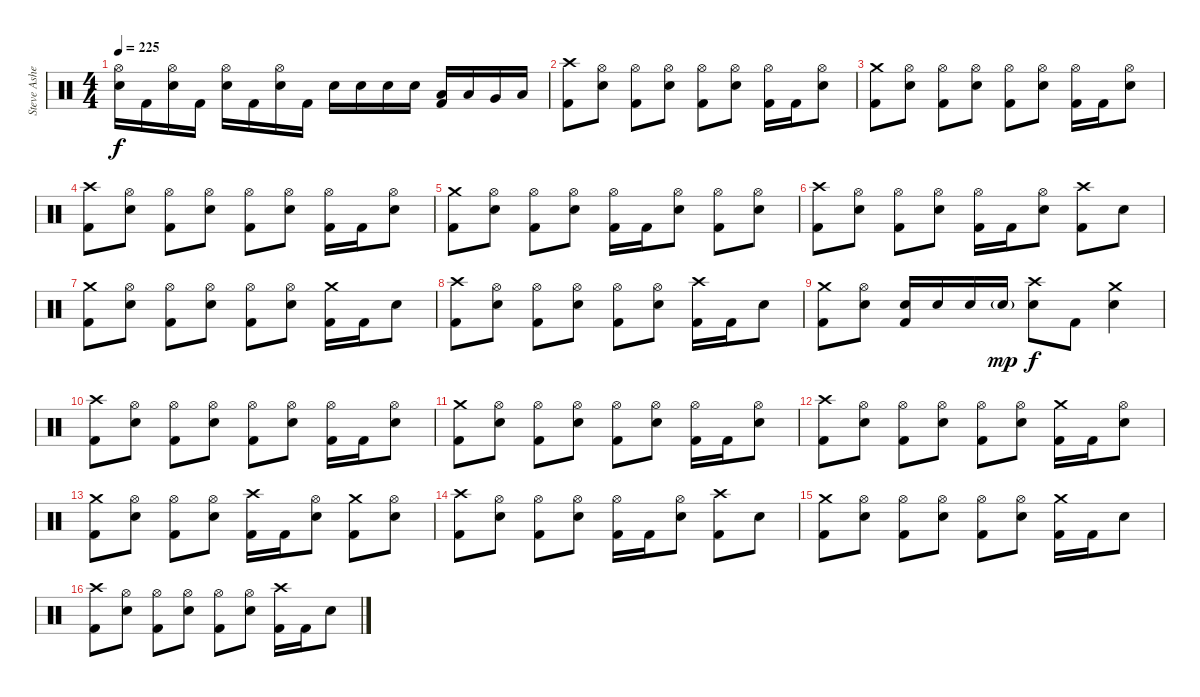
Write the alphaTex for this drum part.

\track ("Steve Asheim" "Steve Ashe") {instrument percussion}
\staff {score}
\articulation defaults
\ts (4 4)
\tempo 225
\clef neutral
\ks c
("Hi-Hat (open)" "Electric Snare (hit)").16{dy f} "Kick (hit) 2".16 ("Hi-Hat (open)" "Electric Snare (hit)").16 "Kick (hit) 2".16 ("Hi-Hat (open)" "Electric Snare (hit)").16 "Kick (hit) 2".16 ("Hi-Hat (open)" "Electric Snare (hit)").16 "Kick (hit) 2".16 "Electric Snare (hit)".16 "Electric Snare (hit)".16 "Electric Snare (hit)".16 "Electric Snare (hit)".16 ("Low Tom (hit)" "Kick (hit) 2").16 "Low Tom (hit)".16 "Very Low Tom (hit)".16 "Low Floor Tom (hit)".16 |
("Crash high (hit)" "Kick (hit) 2").8 ("Hi-Hat (open)" "Electric Snare (hit)").8 ("Hi-Hat (open)" "Kick (hit) 2").8 ("Hi-Hat (open)" "Electric Snare (hit)").8 ("Hi-Hat (open)" "Kick (hit) 2").8 ("Hi-Hat (open)" "Electric Snare (hit)").8 ("Hi-Hat (open)" "Kick (hit) 2").16 "Kick (hit) 2".16 ("Hi-Hat (open)" "Electric Snare (hit)").8 |
("Crash medium (hit)" "Kick (hit) 2").8 ("Hi-Hat (open)" "Electric Snare (hit)").8 ("Hi-Hat (open)" "Kick (hit) 2").8 ("Hi-Hat (open)" "Electric Snare (hit)").8 ("Hi-Hat (open)" "Kick (hit) 2").8 ("Hi-Hat (open)" "Electric Snare (hit)").8 ("Hi-Hat (open)" "Kick (hit) 2").16 "Kick (hit) 2".16 ("Hi-Hat (open)" "Electric Snare (hit)").8 |
("Crash high (hit)" "Kick (hit) 2").8 ("Hi-Hat (open)" "Electric Snare (hit)").8 ("Hi-Hat (open)" "Kick (hit) 2").8 ("Hi-Hat (open)" "Electric Snare (hit)").8 ("Hi-Hat (open)" "Kick (hit) 2").8 ("Hi-Hat (open)" "Electric Snare (hit)").8 ("Hi-Hat (open)" "Kick (hit) 2").16 "Kick (hit) 2".16 ("Hi-Hat (open)" "Electric Snare (hit)").8 |
("Crash medium (hit)" "Kick (hit) 2").8 ("Hi-Hat (open)" "Electric Snare (hit)").8 ("Hi-Hat (open)" "Kick (hit) 2").8 ("Hi-Hat (open)" "Electric Snare (hit)").8 ("Hi-Hat (open)" "Kick (hit) 2").16 "Kick (hit) 2".16 ("Hi-Hat (open)" "Electric Snare (hit)").8 ("Hi-Hat (open)" "Kick (hit) 2").8 ("Hi-Hat (open)" "Electric Snare (hit)").8 |
("Crash high (hit)" "Kick (hit) 2").8 ("Hi-Hat (open)" "Electric Snare (hit)").8 ("Hi-Hat (open)" "Kick (hit) 2").8 ("Hi-Hat (open)" "Electric Snare (hit)").8 ("Hi-Hat (open)" "Kick (hit) 2").16 "Kick (hit) 2".16 ("Hi-Hat (open)" "Electric Snare (hit)").8 ("Crash high (hit)" "Kick (hit) 2").8 "Electric Snare (hit)".8 |
("Crash medium (hit)" "Kick (hit) 2").8 ("Hi-Hat (open)" "Electric Snare (hit)").8 ("Hi-Hat (open)" "Kick (hit) 2").8 ("Hi-Hat (open)" "Electric Snare (hit)").8 ("Hi-Hat (open)" "Kick (hit) 2").8 ("Hi-Hat (open)" "Electric Snare (hit)").8 ("Crash medium (hit)" "Kick (hit) 2").16 "Kick (hit) 2".16 "Electric Snare (hit)".8 |
("Crash high (hit)" "Kick (hit) 2").8 ("Hi-Hat (open)" "Electric Snare (hit)").8 ("Hi-Hat (open)" "Kick (hit) 2").8 ("Hi-Hat (open)" "Electric Snare (hit)").8 ("Hi-Hat (open)" "Kick (hit) 2").8 ("Hi-Hat (open)" "Electric Snare (hit)").8 ("Crash high (hit)" "Kick (hit) 2").16 "Kick (hit) 2".16 "Electric Snare (hit)".8 |
("Crash medium (hit)" "Kick (hit) 2").8 ("Hi-Hat (open)" "Electric Snare (hit)").8 ("Electric Snare (hit)" "Kick (hit) 2").16 "Electric Snare (hit)".16 "Electric Snare (hit)".16 "Electric Snare (hit)"{g}.16{dy mp} ("Crash high (hit)" "Electric Snare (hit)").8{dy f} "Kick (hit) 2".8 ("Crash medium (hit)" "Electric Snare (hit)").4 |
("Crash high (hit)" "Kick (hit) 2").8 ("Hi-Hat (open)" "Electric Snare (hit)").8 ("Hi-Hat (open)" "Kick (hit) 2").8 ("Hi-Hat (open)" "Electric Snare (hit)").8 ("Hi-Hat (open)" "Kick (hit) 2").8 ("Hi-Hat (open)" "Electric Snare (hit)").8 ("Hi-Hat (open)" "Kick (hit) 2").16 "Kick (hit) 2".16 ("Hi-Hat (open)" "Electric Snare (hit)").8 |
("Crash medium (hit)" "Kick (hit) 2").8 ("Hi-Hat (open)" "Electric Snare (hit)").8 ("Hi-Hat (open)" "Kick (hit) 2").8 ("Hi-Hat (open)" "Electric Snare (hit)").8 ("Hi-Hat (open)" "Kick (hit) 2").8 ("Hi-Hat (open)" "Electric Snare (hit)").8 ("Hi-Hat (open)" "Kick (hit) 2").16 "Kick (hit) 2".16 ("Hi-Hat (open)" "Electric Snare (hit)").8 |
("Crash high (hit)" "Kick (hit) 2").8 ("Hi-Hat (open)" "Electric Snare (hit)").8 ("Hi-Hat (open)" "Kick (hit) 2").8 ("Hi-Hat (open)" "Electric Snare (hit)").8 ("Hi-Hat (open)" "Kick (hit) 2").8 ("Hi-Hat (open)" "Electric Snare (hit)").8 ("Crash medium (hit)" "Kick (hit) 2").16 "Kick (hit) 2".16 ("Hi-Hat (open)" "Electric Snare (hit)").8 |
("Crash medium (hit)" "Kick (hit) 2").8 ("Hi-Hat (open)" "Electric Snare (hit)").8 ("Hi-Hat (open)" "Kick (hit) 2").8 ("Hi-Hat (open)" "Electric Snare (hit)").8 ("Crash high (hit)" "Kick (hit) 2").16 "Kick (hit) 2".16 ("Hi-Hat (open)" "Electric Snare (hit)").8 ("Crash medium (hit)" "Kick (hit) 2").8 ("Hi-Hat (open)" "Electric Snare (hit)").8 |
("Crash high (hit)" "Kick (hit) 2").8 ("Hi-Hat (open)" "Electric Snare (hit)").8 ("Hi-Hat (open)" "Kick (hit) 2").8 ("Hi-Hat (open)" "Electric Snare (hit)").8 ("Hi-Hat (open)" "Kick (hit) 2").16 "Kick (hit) 2".16 ("Hi-Hat (open)" "Electric Snare (hit)").8 ("Crash high (hit)" "Kick (hit) 2").8 "Electric Snare (hit)".8 |
("Crash medium (hit)" "Kick (hit) 2").8 ("Hi-Hat (open)" "Electric Snare (hit)").8 ("Hi-Hat (open)" "Kick (hit) 2").8 ("Hi-Hat (open)" "Electric Snare (hit)").8 ("Hi-Hat (open)" "Kick (hit) 2").8 ("Hi-Hat (open)" "Electric Snare (hit)").8 ("Crash medium (hit)" "Kick (hit) 2").16 "Kick (hit) 2".16 "Electric Snare (hit)".8 |
("Crash high (hit)" "Kick (hit) 2").8 ("Hi-Hat (open)" "Electric Snare (hit)").8 ("Hi-Hat (open)" "Kick (hit) 2").8 ("Hi-Hat (open)" "Electric Snare (hit)").8 ("Hi-Hat (open)" "Kick (hit) 2").8 ("Hi-Hat (open)" "Electric Snare (hit)").8 ("Crash high (hit)" "Kick (hit) 2").16 "Kick (hit) 2".16 "Electric Snare (hit)".8
